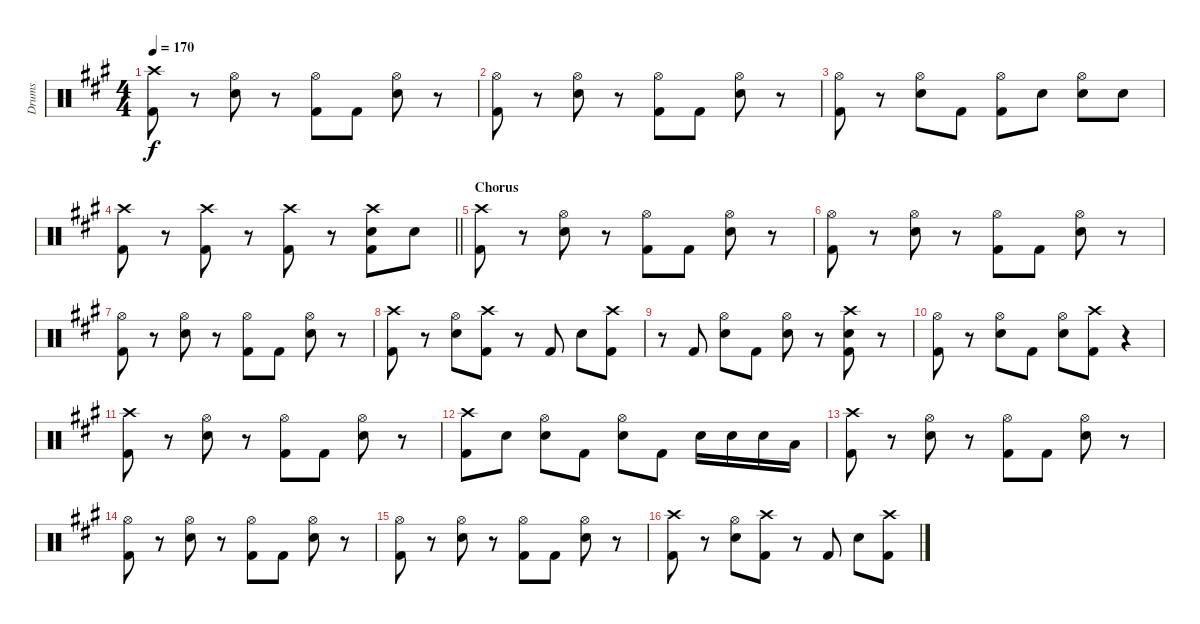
\track ("Drums" "Drums") {instrument percussion}
\staff {score}
\articulation defaults
\ts (4 4)
\tempo 170
\clef neutral
\ks a
("Crash high (hit)" "Kick (hit) 2").8{dy f} r.8 ("Hi-Hat (open)" "Snare (hit) 2").8 r.8 ("Hi-Hat (open)" "Kick (hit) 2").8 "Kick (hit) 2".8 ("Hi-Hat (open)" "Snare (hit) 2").8 r.8 |
("Hi-Hat (open)" "Kick (hit) 2").8 r.8 ("Hi-Hat (open)" "Snare (hit) 2").8 r.8 ("Hi-Hat (open)" "Kick (hit) 2").8 "Kick (hit) 2".8 ("Hi-Hat (open)" "Snare (hit) 2").8 r.8 |
("Hi-Hat (open)" "Kick (hit) 2").8 r.8 ("Hi-Hat (open)" "Snare (hit) 2").8 "Kick (hit) 2".8 ("Hi-Hat (open)" "Kick (hit) 2").8 "Snare (hit) 2".8 ("Hi-Hat (open)" "Snare (hit) 2").8 "Snare (hit) 2".8 |
\barLineRight lightlight
("Crash high (hit)" "Kick (hit) 2").8 r.8 ("Crash high (hit)" "Kick (hit) 2").8 r.8 ("Crash high (hit)" "Kick (hit) 2").8 r.8 ("Crash high (hit)" "Snare (hit) 2" "Kick (hit) 2").8 "Snare (hit) 2".8 |
\section ("" "Chorus")
("Crash high (hit)" "Kick (hit) 2").8 r.8 ("Hi-Hat (open)" "Snare (hit) 2").8 r.8 ("Hi-Hat (open)" "Kick (hit) 2").8 "Kick (hit) 2".8 ("Hi-Hat (open)" "Snare (hit) 2").8 r.8 |
("Hi-Hat (open)" "Kick (hit) 2").8 r.8 ("Hi-Hat (open)" "Snare (hit) 2").8 r.8 ("Hi-Hat (open)" "Kick (hit) 2").8 "Kick (hit) 2".8 ("Hi-Hat (open)" "Snare (hit) 2").8 r.8 |
("Hi-Hat (open)" "Kick (hit) 2").8 r.8 ("Hi-Hat (open)" "Snare (hit) 2").8 r.8 ("Hi-Hat (open)" "Kick (hit) 2").8 "Kick (hit) 2".8 ("Hi-Hat (open)" "Snare (hit) 2").8 r.8 |
("Crash high (hit)" "Kick (hit) 2").8 r.8 ("Hi-Hat (open)" "Snare (hit) 2").8 ("Crash high (hit)" "Kick (hit) 2").8 r.8 "Kick (hit) 2".8 "Snare (hit) 2".8 ("Crash high (hit)" "Kick (hit) 2").8 |
r.8 "Kick (hit) 2".8 ("Hi-Hat (open)" "Snare (hit) 2").8 "Kick (hit) 2".8 ("Hi-Hat (open)" "Snare (hit) 2").8 r.8 ("Crash high (hit)" "Snare (hit) 2" "Kick (hit) 2").8 r.8 |
("Hi-Hat (open)" "Kick (hit) 2").8 r.8 ("Hi-Hat (open)" "Snare (hit) 2").8 "Kick (hit) 2".8 ("Hi-Hat (open)" "Snare (hit) 2").8 ("Crash high (hit)" "Kick (hit) 2").8 r.4 |
("Crash high (hit)" "Kick (hit) 2").8 r.8 ("Hi-Hat (open)" "Snare (hit) 2").8 r.8 ("Hi-Hat (open)" "Kick (hit) 2").8 "Kick (hit) 2".8 ("Hi-Hat (open)" "Snare (hit) 2").8 r.8 |
("Crash high (hit)" "Kick (hit) 2").8 "Snare (hit) 2".8 ("Hi-Hat (open)" "Snare (hit) 2").8 "Kick (hit) 2".8 ("Hi-Hat (open)" "Snare (hit) 2").8 "Kick (hit) 2".8 "Snare (hit) 2".16 "Snare (hit) 2".16 "Snare (hit) 2".16 "Low Tom (hit)".16 |
("Crash high (hit)" "Kick (hit) 2").8 r.8 ("Hi-Hat (open)" "Snare (hit) 2").8 r.8 ("Hi-Hat (open)" "Kick (hit) 2").8 "Kick (hit) 2".8 ("Hi-Hat (open)" "Snare (hit) 2").8 r.8 |
("Hi-Hat (open)" "Kick (hit) 2").8 r.8 ("Hi-Hat (open)" "Snare (hit) 2").8 r.8 ("Hi-Hat (open)" "Kick (hit) 2").8 "Kick (hit) 2".8 ("Hi-Hat (open)" "Snare (hit) 2").8 r.8 |
("Hi-Hat (open)" "Kick (hit) 2").8 r.8 ("Hi-Hat (open)" "Snare (hit) 2").8 r.8 ("Hi-Hat (open)" "Kick (hit) 2").8 "Kick (hit) 2".8 ("Hi-Hat (open)" "Snare (hit) 2").8 r.8 |
("Crash high (hit)" "Kick (hit) 2").8 r.8 ("Hi-Hat (open)" "Snare (hit) 2").8 ("Crash high (hit)" "Kick (hit) 2").8 r.8 "Kick (hit) 2".8 "Snare (hit) 2".8 ("Crash high (hit)" "Kick (hit) 2").8
